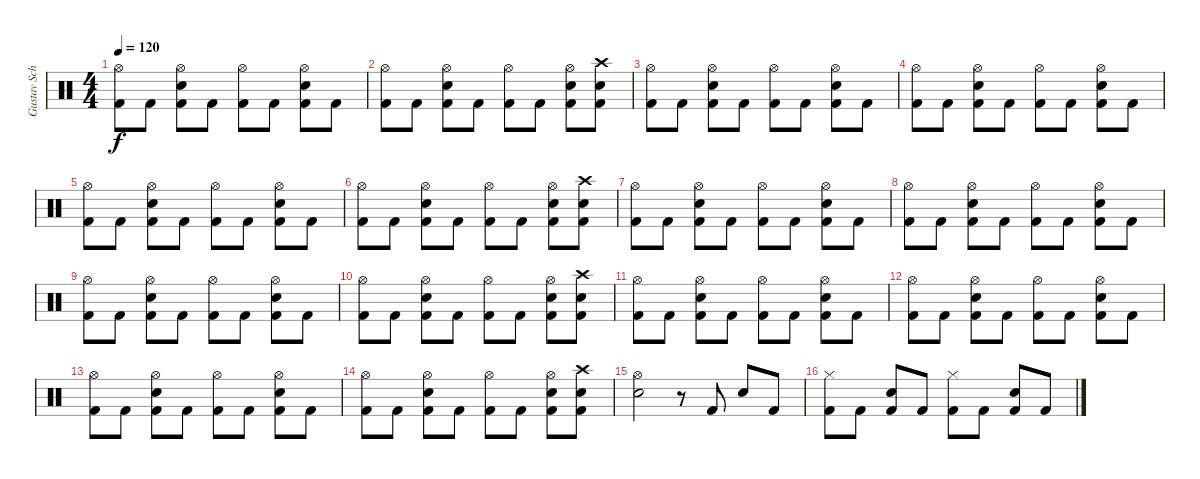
\track ("Gustav Schäfer" "Gustav Sch") {instrument percussion}
\staff {score}
\articulation defaults
\ts (4 4)
\tempo 120
\clef neutral
\ks c
("Hi-Hat (open)" "Kick (hit) 2").8{dy f} "Kick (hit) 2".8 ("Hi-Hat (open)" "Electric Snare (hit)" "Kick (hit) 2").8 "Kick (hit) 2".8 ("Hi-Hat (open)" "Kick (hit) 2").8 "Kick (hit) 2".8 ("Hi-Hat (open)" "Electric Snare (hit)" "Kick (hit) 2").8 "Kick (hit) 2".8 |
("Hi-Hat (open)" "Kick (hit) 2").8 "Kick (hit) 2".8 ("Hi-Hat (open)" "Electric Snare (hit)" "Kick (hit) 2").8 "Kick (hit) 2".8 ("Hi-Hat (open)" "Kick (hit) 2").8 "Kick (hit) 2".8 ("Hi-Hat (open)" "Electric Snare (hit)" "Kick (hit) 2").8 ("Crash high (hit)" "Electric Snare (hit)" "Kick (hit) 2").8 |
("Hi-Hat (open)" "Kick (hit) 2").8 "Kick (hit) 2".8 ("Hi-Hat (open)" "Electric Snare (hit)" "Kick (hit) 2").8 "Kick (hit) 2".8 ("Hi-Hat (open)" "Kick (hit) 2").8 "Kick (hit) 2".8 ("Hi-Hat (open)" "Electric Snare (hit)" "Kick (hit) 2").8 "Kick (hit) 2".8 |
("Hi-Hat (open)" "Kick (hit) 2").8 "Kick (hit) 2".8 ("Hi-Hat (open)" "Electric Snare (hit)" "Kick (hit) 2").8 "Kick (hit) 2".8 ("Hi-Hat (open)" "Kick (hit) 2").8 "Kick (hit) 2".8 ("Hi-Hat (open)" "Electric Snare (hit)" "Kick (hit) 2").8 "Kick (hit) 2".8 |
("Hi-Hat (open)" "Kick (hit) 2").8 "Kick (hit) 2".8 ("Hi-Hat (open)" "Electric Snare (hit)" "Kick (hit) 2").8 "Kick (hit) 2".8 ("Hi-Hat (open)" "Kick (hit) 2").8 "Kick (hit) 2".8 ("Hi-Hat (open)" "Electric Snare (hit)" "Kick (hit) 2").8 "Kick (hit) 2".8 |
("Hi-Hat (open)" "Kick (hit) 2").8 "Kick (hit) 2".8 ("Hi-Hat (open)" "Electric Snare (hit)" "Kick (hit) 2").8 "Kick (hit) 2".8 ("Hi-Hat (open)" "Kick (hit) 2").8 "Kick (hit) 2".8 ("Hi-Hat (open)" "Electric Snare (hit)" "Kick (hit) 2").8 ("Crash high (hit)" "Electric Snare (hit)" "Kick (hit) 2").8 |
("Hi-Hat (open)" "Kick (hit) 2").8 "Kick (hit) 2".8 ("Hi-Hat (open)" "Electric Snare (hit)" "Kick (hit) 2").8 "Kick (hit) 2".8 ("Hi-Hat (open)" "Kick (hit) 2").8 "Kick (hit) 2".8 ("Hi-Hat (open)" "Electric Snare (hit)" "Kick (hit) 2").8 "Kick (hit) 2".8 |
("Hi-Hat (open)" "Kick (hit) 2").8 "Kick (hit) 2".8 ("Hi-Hat (open)" "Electric Snare (hit)" "Kick (hit) 2").8 "Kick (hit) 2".8 ("Hi-Hat (open)" "Kick (hit) 2").8 "Kick (hit) 2".8 ("Hi-Hat (open)" "Electric Snare (hit)" "Kick (hit) 2").8 "Kick (hit) 2".8 |
("Hi-Hat (open)" "Kick (hit) 2").8 "Kick (hit) 2".8 ("Hi-Hat (open)" "Electric Snare (hit)" "Kick (hit) 2").8 "Kick (hit) 2".8 ("Hi-Hat (open)" "Kick (hit) 2").8 "Kick (hit) 2".8 ("Hi-Hat (open)" "Electric Snare (hit)" "Kick (hit) 2").8 "Kick (hit) 2".8 |
("Hi-Hat (open)" "Kick (hit) 2").8 "Kick (hit) 2".8 ("Hi-Hat (open)" "Electric Snare (hit)" "Kick (hit) 2").8 "Kick (hit) 2".8 ("Hi-Hat (open)" "Kick (hit) 2").8 "Kick (hit) 2".8 ("Hi-Hat (open)" "Electric Snare (hit)" "Kick (hit) 2").8 ("Crash high (hit)" "Electric Snare (hit)" "Kick (hit) 2").8 |
("Hi-Hat (open)" "Kick (hit) 2").8 "Kick (hit) 2".8 ("Hi-Hat (open)" "Electric Snare (hit)" "Kick (hit) 2").8 "Kick (hit) 2".8 ("Hi-Hat (open)" "Kick (hit) 2").8 "Kick (hit) 2".8 ("Hi-Hat (open)" "Electric Snare (hit)" "Kick (hit) 2").8 "Kick (hit) 2".8 |
("Hi-Hat (open)" "Kick (hit) 2").8 "Kick (hit) 2".8 ("Hi-Hat (open)" "Electric Snare (hit)" "Kick (hit) 2").8 "Kick (hit) 2".8 ("Hi-Hat (open)" "Kick (hit) 2").8 "Kick (hit) 2".8 ("Hi-Hat (open)" "Electric Snare (hit)" "Kick (hit) 2").8 "Kick (hit) 2".8 |
("Hi-Hat (open)" "Kick (hit) 2").8 "Kick (hit) 2".8 ("Hi-Hat (open)" "Electric Snare (hit)" "Kick (hit) 2").8 "Kick (hit) 2".8 ("Hi-Hat (open)" "Kick (hit) 2").8 "Kick (hit) 2".8 ("Hi-Hat (open)" "Electric Snare (hit)" "Kick (hit) 2").8 "Kick (hit) 2".8 |
("Hi-Hat (open)" "Kick (hit) 2").8 "Kick (hit) 2".8 ("Hi-Hat (open)" "Electric Snare (hit)" "Kick (hit) 2").8 "Kick (hit) 2".8 ("Hi-Hat (open)" "Kick (hit) 2").8 "Kick (hit) 2".8 ("Hi-Hat (open)" "Electric Snare (hit)" "Kick (hit) 2").8 ("Crash high (hit)" "Electric Snare (hit)" "Kick (hit) 2").8 |
("Electric Snare (hit)" "Hi-Hat (open)").2 r.8 "Kick (hit) 2".8 "Electric Snare (hit)".8 "Kick (hit) 2".8 |
("Hi-Hat (closed)" "Kick (hit) 2").8 "Kick (hit) 2".8 ("Electric Snare (hit)" "Kick (hit) 2").8 "Kick (hit) 2".8 ("Hi-Hat (closed)" "Kick (hit) 2").8 "Kick (hit) 2".8 ("Electric Snare (hit)" "Kick (hit) 2").8 "Kick (hit) 2".8
